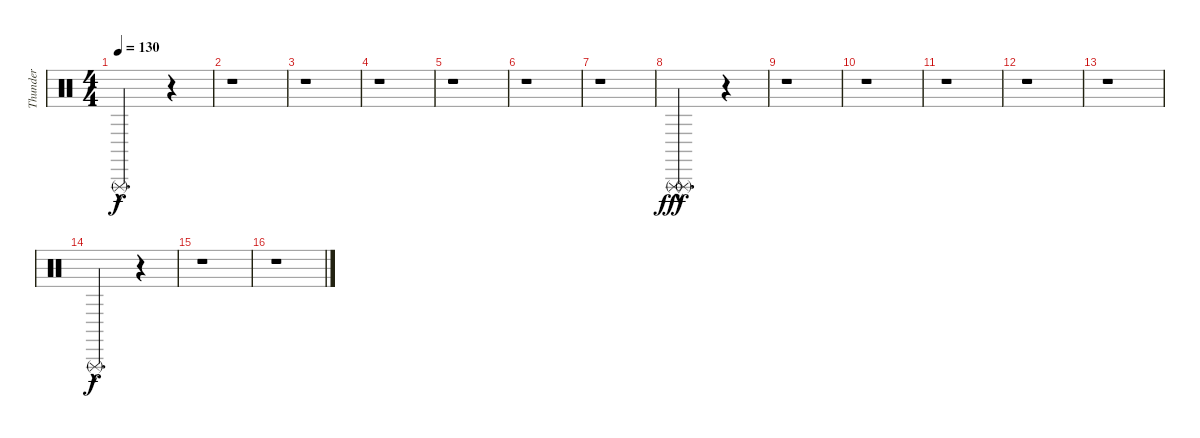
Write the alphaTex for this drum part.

\track ("Thunder" "Thunder") {instrument percussion}
\staff {score}
\articulation defaults
\ts (4 4)
\tempo 130
\clef neutral
\ks c "Triangle (rnute)"{hac}.2{d dy f}
r.4 |
r.1 |
r.1 |
r.1 |
r.1 |
r.1 |
r.1 |
("Triangle (rnute)"{hac} "Triangle (rnute)"{hac}).2{d dy fff} r.4 |
r.1 |
r.1 |
r.1 |
r.1 |
r.1 |
"Triangle (rnute)"{hac}.2{d dy f} r.4 |
r.1 |
r.1
